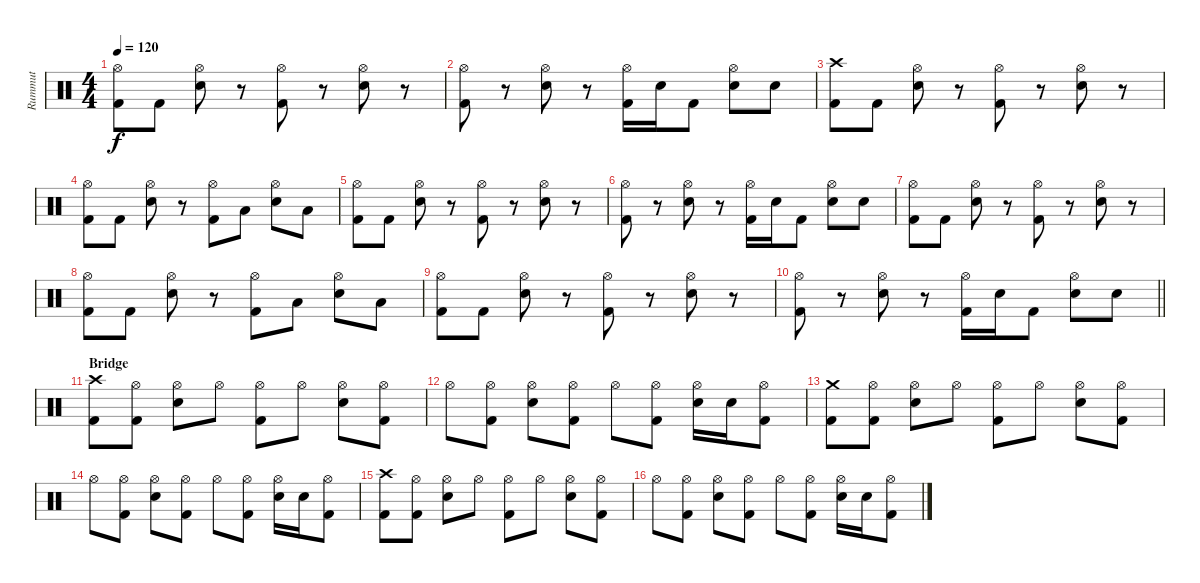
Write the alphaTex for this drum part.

\track ("Rummut" "Rummut") {instrument percussion}
\staff {score}
\articulation defaults
\ts (4 4)
\tempo 120
\clef neutral
\ks c
("Hi-Hat (open)" "Kick (hit) 2").8{dy f} "Kick (hit) 2".8 ("Hi-Hat (open)" "Snare (hit) 2").8 r.8 ("Hi-Hat (open)" "Kick (hit) 2").8 r.8 ("Hi-Hat (open)" "Snare (hit) 2").8 r.8 |
("Hi-Hat (open)" "Kick (hit) 2").8 r.8 ("Hi-Hat (open)" "Snare (hit) 2").8 r.8 ("Hi-Hat (open)" "Kick (hit) 2").16 "Snare (hit) 2".16 "Kick (hit) 2".8 ("Hi-Hat (open)" "Snare (hit) 2").8 "Snare (hit) 2".8 |
("Crash high (hit)" "Kick (hit) 2").8 "Kick (hit) 2".8 ("Hi-Hat (open)" "Snare (hit) 2").8 r.8 ("Hi-Hat (open)" "Kick (hit) 2").8 r.8 ("Hi-Hat (open)" "Snare (hit) 2").8 r.8 |
("Hi-Hat (open)" "Kick (hit) 2").8 "Kick (hit) 2".8 ("Hi-Hat (open)" "Snare (hit) 2").8 r.8 ("Hi-Hat (open)" "Kick (hit) 2").8 "Low Tom (hit)".8 ("Hi-Hat (open)" "Snare (hit) 2").8 "Low Floor Tom (hit)".8 |
("Hi-Hat (open)" "Kick (hit) 2").8 "Kick (hit) 2".8 ("Hi-Hat (open)" "Snare (hit) 2").8 r.8 ("Hi-Hat (open)" "Kick (hit) 2").8 r.8 ("Hi-Hat (open)" "Snare (hit) 2").8 r.8 |
("Hi-Hat (open)" "Kick (hit) 2").8 r.8 ("Hi-Hat (open)" "Snare (hit) 2").8 r.8 ("Hi-Hat (open)" "Kick (hit) 2").16 "Snare (hit) 2".16 "Kick (hit) 2".8 ("Hi-Hat (open)" "Snare (hit) 2").8 "Snare (hit) 2".8 |
("Hi-Hat (open)" "Kick (hit) 2").8 "Kick (hit) 2".8 ("Hi-Hat (open)" "Snare (hit) 2").8 r.8 ("Hi-Hat (open)" "Kick (hit) 2").8 r.8 ("Hi-Hat (open)" "Snare (hit) 2").8 r.8 |
("Hi-Hat (open)" "Kick (hit) 2").8 "Kick (hit) 2".8 ("Hi-Hat (open)" "Snare (hit) 2").8 r.8 ("Hi-Hat (open)" "Kick (hit) 2").8 "Low Tom (hit)".8 ("Hi-Hat (open)" "Snare (hit) 2").8 "Low Floor Tom (hit)".8 |
("Hi-Hat (open)" "Kick (hit) 2").8 "Kick (hit) 2".8 ("Hi-Hat (open)" "Snare (hit) 2").8 r.8 ("Hi-Hat (open)" "Kick (hit) 2").8 r.8 ("Hi-Hat (open)" "Snare (hit) 2").8 r.8 |
\barLineRight lightlight
("Hi-Hat (open)" "Kick (hit) 2").8 r.8 ("Hi-Hat (open)" "Snare (hit) 2").8 r.8 ("Hi-Hat (open)" "Kick (hit) 2").16 "Snare (hit) 2".16 "Kick (hit) 2".8 ("Hi-Hat (open)" "Snare (hit) 2").8 "Snare (hit) 2".8 |
\section ("" "Bridge")
("Crash high (hit)" "Kick (hit) 2").8 ("Hi-Hat (open)" "Kick (hit) 2").8 ("Hi-Hat (open)" "Snare (hit) 2").8 "Hi-Hat (open)".8 ("Hi-Hat (open)" "Kick (hit) 2").8 "Hi-Hat (open)".8 ("Hi-Hat (open)" "Snare (hit) 2").8 ("Hi-Hat (open)" "Kick (hit) 2").8 |
"Hi-Hat (open)".8 ("Hi-Hat (open)" "Kick (hit) 2").8 ("Hi-Hat (open)" "Snare (hit) 2").8 ("Hi-Hat (open)" "Kick (hit) 2").8 "Hi-Hat (open)".8 ("Hi-Hat (open)" "Kick (hit) 2").8 ("Hi-Hat (open)" "Snare (hit) 2").16 "Snare (hit) 2".16 ("Hi-Hat (open)" "Kick (hit) 2").8 |
("Crash medium (hit)" "Kick (hit) 2").8 ("Hi-Hat (open)" "Kick (hit) 2").8 ("Hi-Hat (open)" "Snare (hit) 2").8 "Hi-Hat (open)".8 ("Hi-Hat (open)" "Kick (hit) 2").8 "Hi-Hat (open)".8 ("Hi-Hat (open)" "Snare (hit) 2").8 ("Hi-Hat (open)" "Kick (hit) 2").8 |
"Hi-Hat (open)".8 ("Hi-Hat (open)" "Kick (hit) 2").8 ("Hi-Hat (open)" "Snare (hit) 2").8 ("Hi-Hat (open)" "Kick (hit) 2").8 "Hi-Hat (open)".8 ("Hi-Hat (open)" "Kick (hit) 2").8 ("Hi-Hat (open)" "Snare (hit) 2").16 "Snare (hit) 2".16 ("Hi-Hat (open)" "Kick (hit) 2").8 |
("Crash high (hit)" "Kick (hit) 2").8 ("Hi-Hat (open)" "Kick (hit) 2").8 ("Hi-Hat (open)" "Snare (hit) 2").8 "Hi-Hat (open)".8 ("Hi-Hat (open)" "Kick (hit) 2").8 "Hi-Hat (open)".8 ("Hi-Hat (open)" "Snare (hit) 2").8 ("Hi-Hat (open)" "Kick (hit) 2").8 |
"Hi-Hat (open)".8 ("Hi-Hat (open)" "Kick (hit) 2").8 ("Hi-Hat (open)" "Snare (hit) 2").8 ("Hi-Hat (open)" "Kick (hit) 2").8 "Hi-Hat (open)".8 ("Hi-Hat (open)" "Kick (hit) 2").8 ("Hi-Hat (open)" "Snare (hit) 2").16 "Snare (hit) 2".16 ("Hi-Hat (open)" "Kick (hit) 2").8
